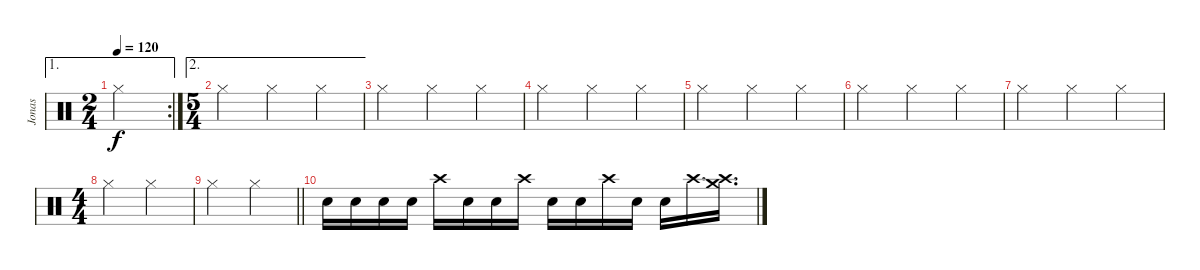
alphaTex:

\track ("Jonas" "Jonas") {instrument percussion}
\staff {score}
\articulation defaults
\ae 1
\rc 2
\ts (2 4)
\tempo 120
\clef neutral
\ks c "Hi-Hat (closed)".2{dy f}
|
\ae 2
\ts (5 4)
"Hi-Hat (closed)".2 "Hi-Hat (closed)".2 "Hi-Hat (closed)".4 |
"Hi-Hat (closed)".2 "Hi-Hat (closed)".2 "Hi-Hat (closed)".4 |
"Hi-Hat (closed)".2 "Hi-Hat (closed)".2 "Hi-Hat (closed)".4 |
"Hi-Hat (closed)".2 "Hi-Hat (closed)".2 "Hi-Hat (closed)".4 |
"Hi-Hat (closed)".2 "Hi-Hat (closed)".2 "Hi-Hat (closed)".4 |
"Hi-Hat (closed)".2 "Hi-Hat (closed)".2 "Hi-Hat (closed)".4 |
\ts (4 4)
"Hi-Hat (closed)".2 "Hi-Hat (closed)".2 |
\barLineRight lightlight "Hi-Hat (closed)".2 "Hi-Hat (closed)".2
|
"Snare (hit) 2".16 "Snare (hit) 2".16 "Snare (hit) 2".16 "Snare (hit) 2".16 "Crash high (hit)".16 "Snare (hit) 2".16 "Snare (hit) 2".16 "Crash high (hit)".16 "Snare (hit) 2".16 "Snare (hit) 2".16 "Crash high (hit)".16 "Snare (hit) 2".16 "Snare (hit) 2".16 "Crash high (hit)".16{d} ("Crash high (hit)" "Crash medium (hit)").16{d}
